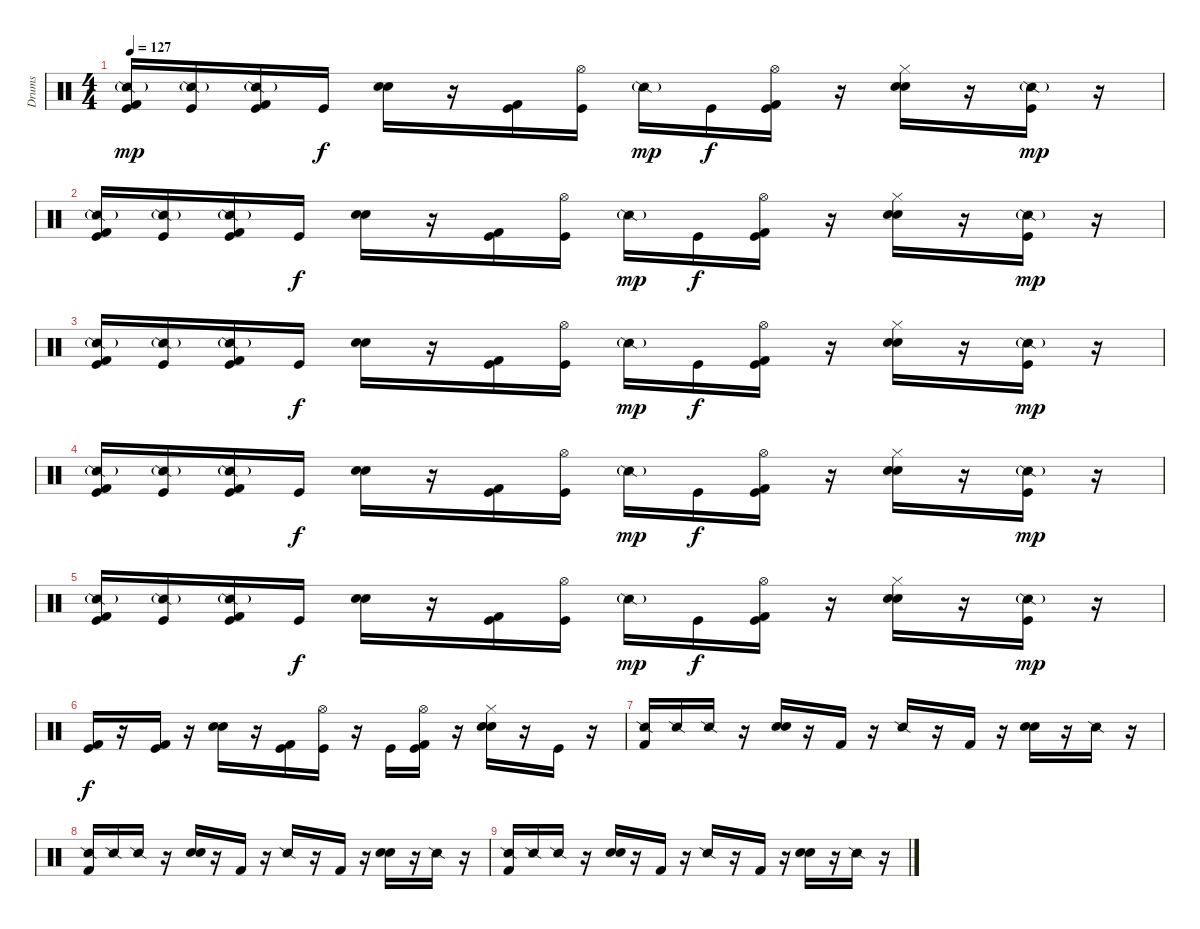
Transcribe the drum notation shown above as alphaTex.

\track ("Drums" "Drums") {instrument percussion}
\staff {score}
\articulation defaults
\ts (4 4)
\tempo 127
\clef neutral
\ks c
("Snare (side stick) 2"{g} "Kick (hit) 2" "Kick (hit)").16{dy mp} ("Snare (side stick) 2"{g} "Kick (hit)").16 ("Snare (side stick) 2"{g} "Kick (hit) 2" "Kick (hit)").16 "Kick (hit)".16{dy f} ("Snare (hit) 2" "Hand Clap (hit)").16 r.16 ("Kick (hit) 2" "Kick (hit)").16 ("Hi-Hat (open)" "Kick (hit)").16 "Snare (side stick) 2"{g}.16{dy mp} "Kick (hit)".16{dy f} ("Hi-Hat (open)" "Kick (hit) 2" "Kick (hit)").16 r.16 ("Hi-Hat (closed)" "Snare (hit) 2" "Hand Clap (hit)").16 r.16 ("Snare (side stick) 2"{g} "Kick (hit)").16{dy mp} r.16 |
("Snare (side stick) 2"{g} "Kick (hit) 2" "Kick (hit)").16 ("Snare (side stick) 2"{g} "Kick (hit)").16 ("Snare (side stick) 2"{g} "Kick (hit) 2" "Kick (hit)").16 "Kick (hit)".16{dy f} ("Snare (hit) 2" "Hand Clap (hit)").16 r.16 ("Kick (hit) 2" "Kick (hit)").16 ("Hi-Hat (open)" "Kick (hit)").16 "Snare (side stick) 2"{g}.16{dy mp} "Kick (hit)".16{dy f} ("Hi-Hat (open)" "Kick (hit) 2" "Kick (hit)").16 r.16 ("Hi-Hat (closed)" "Snare (hit) 2" "Hand Clap (hit)").16 r.16 ("Snare (side stick) 2"{g} "Kick (hit)").16{dy mp} r.16 |
("Snare (side stick) 2"{g} "Kick (hit) 2" "Kick (hit)").16 ("Snare (side stick) 2"{g} "Kick (hit)").16 ("Snare (side stick) 2"{g} "Kick (hit) 2" "Kick (hit)").16 "Kick (hit)".16{dy f} ("Snare (hit) 2" "Hand Clap (hit)").16 r.16 ("Kick (hit) 2" "Kick (hit)").16 ("Hi-Hat (open)" "Kick (hit)").16 "Snare (side stick) 2"{g}.16{dy mp} "Kick (hit)".16{dy f} ("Hi-Hat (open)" "Kick (hit) 2" "Kick (hit)").16 r.16 ("Hi-Hat (closed)" "Snare (hit) 2" "Hand Clap (hit)").16 r.16 ("Snare (side stick) 2"{g} "Kick (hit)").16{dy mp} r.16 |
("Snare (side stick) 2"{g} "Kick (hit) 2" "Kick (hit)").16 ("Snare (side stick) 2"{g} "Kick (hit)").16 ("Snare (side stick) 2"{g} "Kick (hit) 2" "Kick (hit)").16 "Kick (hit)".16{dy f} ("Snare (hit) 2" "Hand Clap (hit)").16 r.16 ("Kick (hit) 2" "Kick (hit)").16 ("Hi-Hat (open)" "Kick (hit)").16 "Snare (side stick) 2"{g}.16{dy mp} "Kick (hit)".16{dy f} ("Hi-Hat (open)" "Kick (hit) 2" "Kick (hit)").16 r.16 ("Hi-Hat (closed)" "Snare (hit) 2" "Hand Clap (hit)").16 r.16 ("Snare (side stick) 2"{g} "Kick (hit)").16{dy mp} r.16 |
("Snare (side stick) 2"{g} "Kick (hit) 2" "Kick (hit)").16 ("Snare (side stick) 2"{g} "Kick (hit)").16 ("Snare (side stick) 2"{g} "Kick (hit) 2" "Kick (hit)").16 "Kick (hit)".16{dy f} ("Snare (hit) 2" "Hand Clap (hit)").16 r.16 ("Kick (hit) 2" "Kick (hit)").16 ("Hi-Hat (open)" "Kick (hit)").16 "Snare (side stick) 2"{g}.16{dy mp} "Kick (hit)".16{dy f} ("Hi-Hat (open)" "Kick (hit) 2" "Kick (hit)").16 r.16 ("Hi-Hat (closed)" "Snare (hit) 2" "Hand Clap (hit)").16 r.16 ("Snare (side stick) 2"{g} "Kick (hit)").16{dy mp} r.16 |
("Kick (hit) 2" "Kick (hit)").16{dy f} r.16 ("Kick (hit) 2" "Kick (hit)").16 r.16 ("Snare (hit) 2" "Hand Clap (hit)").16 r.16 ("Kick (hit) 2" "Kick (hit)").16 ("Hi-Hat (open)" "Kick (hit)").16 r.16 "Kick (hit)".16 ("Hi-Hat (open)" "Kick (hit) 2" "Kick (hit)").16 r.16 ("Hi-Hat (closed)" "Snare (hit) 2" "Hand Clap (hit)").16 r.16 "Kick (hit)".16 r.16 |
("Snare (side stick) 2" "Kick (hit) 2").16 "Snare (side stick) 2".16 "Snare (side stick) 2".16 r.16 ("Snare (hit) 2" "Hand Clap (hit)").16 r.16 "Kick (hit) 2".16 r.16 "Snare (side stick) 2".16 r.16 "Kick (hit) 2".16 r.16 ("Snare (hit) 2" "Hand Clap (hit)").16 r.16 "Snare (side stick) 2".16 r.16 |
("Snare (side stick) 2" "Kick (hit) 2").16 "Snare (side stick) 2".16 "Snare (side stick) 2".16 r.16 ("Snare (hit) 2" "Hand Clap (hit)").16 r.16 "Kick (hit) 2".16 r.16 "Snare (side stick) 2".16 r.16 "Kick (hit) 2".16 r.16 ("Snare (hit) 2" "Hand Clap (hit)").16 r.16 "Snare (side stick) 2".16 r.16 |
("Snare (side stick) 2" "Kick (hit) 2").16 "Snare (side stick) 2".16 "Snare (side stick) 2".16 r.16 ("Snare (hit) 2" "Hand Clap (hit)").16 r.16 "Kick (hit) 2".16 r.16 "Snare (side stick) 2".16 r.16 "Kick (hit) 2".16 r.16 ("Snare (hit) 2" "Hand Clap (hit)").16 r.16 "Snare (side stick) 2".16 r.16
